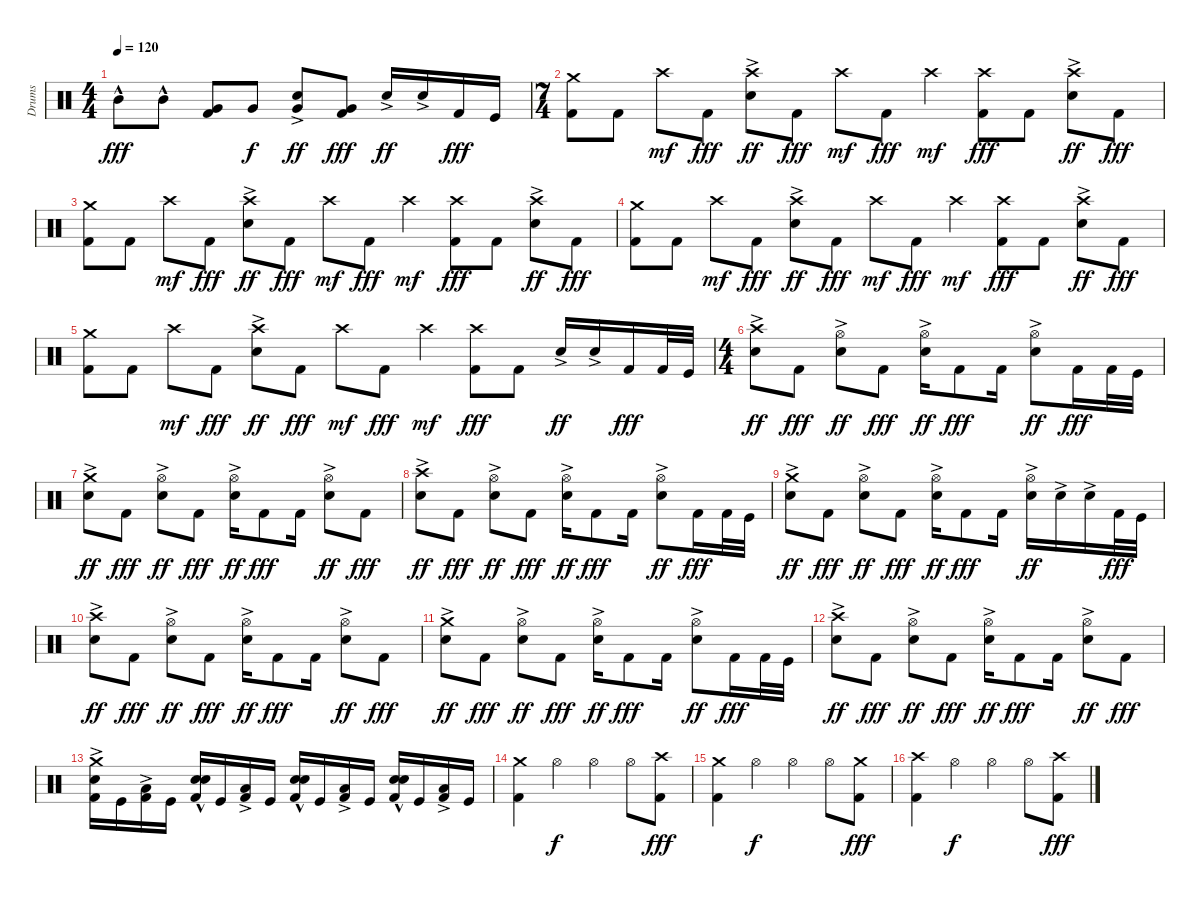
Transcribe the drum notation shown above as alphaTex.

\track ("Drums" "Drums") {instrument percussion}
\staff {score}
\articulation defaults
\ts (4 4)
\tempo 120
\clef neutral
\ks c "Mid Tom (hit)"{hac}.8{dy fff} "Mid Tom (hit)"{hac}.8
("Very Low Tom (hit)" "Kick (hit) 2").8 "Very Low Tom (hit)".8{dy f} ("Snare (hit) 2"{ac} "Very Low Tom (hit)").8{dy ff} ("Very Low Tom (hit)" "Kick (hit) 2").8{dy fff} "Snare (hit) 2"{ac}.16{dy ff} "Snare (hit) 2"{ac}.16 "Kick (hit) 2".16{dy fff} "Kick (hit)".16 |
\ts (7 4)
("Crash medium (hit)" "Kick (hit) 2").8 "Kick (hit) 2".8 "Crash high (hit)".8{dy mf} "Kick (hit) 2".8{dy fff} ("Crash high (hit)" "Snare (hit) 2"{ac}).8{dy ff} "Kick (hit) 2".8{dy fff} "Crash high (hit)".8{dy mf} "Kick (hit) 2".8{dy fff} "Crash high (hit)".4{dy mf} ("Crash high (hit)" "Kick (hit) 2").8{dy fff} "Kick (hit) 2".8 ("Crash high (hit)" "Snare (hit) 2"{ac}).8{dy ff} "Kick (hit) 2".8{dy fff} |
("Crash medium (hit)" "Kick (hit) 2").8 "Kick (hit) 2".8 "Crash high (hit)".8{dy mf} "Kick (hit) 2".8{dy fff} ("Crash high (hit)" "Snare (hit) 2"{ac}).8{dy ff} "Kick (hit) 2".8{dy fff} "Crash high (hit)".8{dy mf} "Kick (hit) 2".8{dy fff} "Crash high (hit)".4{dy mf} ("Crash high (hit)" "Kick (hit) 2").8{dy fff} "Kick (hit) 2".8 ("Crash high (hit)" "Snare (hit) 2"{ac}).8{dy ff} "Kick (hit) 2".8{dy fff} |
("Crash medium (hit)" "Kick (hit) 2").8 "Kick (hit) 2".8 "Crash high (hit)".8{dy mf} "Kick (hit) 2".8{dy fff} ("Crash high (hit)" "Snare (hit) 2"{ac}).8{dy ff} "Kick (hit) 2".8{dy fff} "Crash high (hit)".8{dy mf} "Kick (hit) 2".8{dy fff} "Crash high (hit)".4{dy mf} ("Crash high (hit)" "Kick (hit) 2").8{dy fff} "Kick (hit) 2".8 ("Crash high (hit)" "Snare (hit) 2"{ac}).8{dy ff} "Kick (hit) 2".8{dy fff} |
("Crash medium (hit)" "Kick (hit) 2").8 "Kick (hit) 2".8 "Crash high (hit)".8{dy mf} "Kick (hit) 2".8{dy fff} ("Crash high (hit)" "Snare (hit) 2"{ac}).8{dy ff} "Kick (hit) 2".8{dy fff} "Crash high (hit)".8{dy mf} "Kick (hit) 2".8{dy fff} "Crash high (hit)".4{dy mf} ("Crash high (hit)" "Kick (hit) 2").8{dy fff} "Kick (hit) 2".8 "Snare (hit) 2"{ac}.16{dy ff} "Snare (hit) 2"{ac}.16 "Kick (hit) 2".16{dy fff} "Kick (hit) 2".32 "Kick (hit)".32 |
\ts (4 4)
("Crash high (hit)" "Snare (hit) 2"{ac}).8{dy ff} "Kick (hit) 2".8{dy fff} ("Hi-Hat (open)" "Snare (hit) 2"{ac}).8{dy ff} "Kick (hit) 2".8{dy fff} ("Hi-Hat (open)" "Snare (hit) 2"{ac}).16{dy ff} "Kick (hit) 2".8{dy fff} "Kick (hit) 2".16 ("Hi-Hat (open)" "Snare (hit) 2"{ac}).8{dy ff} "Kick (hit) 2".16{dy fff} "Kick (hit) 2".32 "Kick (hit)".32 |
("Crash medium (hit)" "Snare (hit) 2"{ac}).8{dy ff} "Kick (hit) 2".8{dy fff} ("Hi-Hat (open)" "Snare (hit) 2"{ac}).8{dy ff} "Kick (hit) 2".8{dy fff} ("Hi-Hat (open)" "Snare (hit) 2"{ac}).16{dy ff} "Kick (hit) 2".8{dy fff} "Kick (hit) 2".16 ("Hi-Hat (open)" "Snare (hit) 2"{ac}).8{dy ff} "Kick (hit) 2".8{dy fff} |
("Crash high (hit)" "Snare (hit) 2"{ac}).8{dy ff} "Kick (hit) 2".8{dy fff} ("Hi-Hat (open)" "Snare (hit) 2"{ac}).8{dy ff} "Kick (hit) 2".8{dy fff} ("Hi-Hat (open)" "Snare (hit) 2"{ac}).16{dy ff} "Kick (hit) 2".8{dy fff} "Kick (hit) 2".16 ("Hi-Hat (open)" "Snare (hit) 2"{ac}).8{dy ff} "Kick (hit) 2".16{dy fff} "Kick (hit) 2".32 "Kick (hit)".32 |
("Crash medium (hit)" "Snare (hit) 2"{ac}).8{dy ff} "Kick (hit) 2".8{dy fff} ("Hi-Hat (open)" "Snare (hit) 2"{ac}).8{dy ff} "Kick (hit) 2".8{dy fff} ("Hi-Hat (open)" "Snare (hit) 2"{ac}).16{dy ff} "Kick (hit) 2".8{dy fff} "Kick (hit) 2".16 ("Hi-Hat (open)" "Snare (hit) 2"{ac}).16{dy ff} "Snare (hit) 2"{ac}.16 "Snare (hit) 2"{ac}.16 "Kick (hit) 2".32{dy fff} "Kick (hit)".32 |
("Crash high (hit)" "Snare (hit) 2"{ac}).8{dy ff} "Kick (hit) 2".8{dy fff} ("Hi-Hat (open)" "Snare (hit) 2"{ac}).8{dy ff} "Kick (hit) 2".8{dy fff} ("Hi-Hat (open)" "Snare (hit) 2"{ac}).16{dy ff} "Kick (hit) 2".8{dy fff} "Kick (hit) 2".16 ("Hi-Hat (open)" "Snare (hit) 2"{ac}).8{dy ff} "Kick (hit) 2".8{dy fff} |
("Crash medium (hit)" "Snare (hit) 2"{ac}).8{dy ff} "Kick (hit) 2".8{dy fff} ("Hi-Hat (open)" "Snare (hit) 2"{ac}).8{dy ff} "Kick (hit) 2".8{dy fff} ("Hi-Hat (open)" "Snare (hit) 2"{ac}).16{dy ff} "Kick (hit) 2".8{dy fff} "Kick (hit) 2".16 ("Hi-Hat (open)" "Snare (hit) 2"{ac}).8{dy ff} "Kick (hit) 2".16{dy fff} "Kick (hit) 2".32 "Kick (hit)".32 |
("Crash high (hit)" "Snare (hit) 2"{ac}).8{dy ff} "Kick (hit) 2".8{dy fff} ("Hi-Hat (open)" "Snare (hit) 2"{ac}).8{dy ff} "Kick (hit) 2".8{dy fff} ("Hi-Hat (open)" "Snare (hit) 2"{ac}).16{dy ff} "Kick (hit) 2".8{dy fff} "Kick (hit) 2".16 ("Hi-Hat (open)" "Snare (hit) 2"{ac}).8{dy ff} "Kick (hit) 2".8{dy fff} |
("Crash medium (hit)" "Snare (hit) 2"{ac} "Kick (hit) 2").16 "Kick (hit)".16 ("Low Tom (hit)"{ac} "Kick (hit) 2").16 "Kick (hit)".16 ("Snare (hit) 2"{hac} "Snare (hit) 2"{hac} "Kick (hit) 2").16 "Kick (hit)".16 ("Low Tom (hit)"{ac} "Kick (hit) 2").16 "Kick (hit)".16 ("Snare (hit) 2"{hac} "Snare (hit) 2"{hac} "Kick (hit) 2").16 "Kick (hit)".16 ("Low Tom (hit)"{ac} "Kick (hit) 2").16 "Kick (hit)".16 ("Snare (hit) 2"{hac} "Snare (hit) 2"{hac} "Kick (hit) 2").16 "Kick (hit)".16 ("Low Tom (hit)"{ac} "Kick (hit) 2").16 "Kick (hit)".16 |
("Crash medium (hit)" "Kick (hit) 2").4 "Hi-Hat (open)".4{dy f} "Hi-Hat (open)".4 "Hi-Hat (open)".8 ("Crash high (hit)" "Kick (hit) 2").8{dy fff} |
("Crash medium (hit)" "Kick (hit) 2").4 "Hi-Hat (open)".4{dy f} "Hi-Hat (open)".4 "Hi-Hat (open)".8 ("Crash medium (hit)" "Kick (hit) 2").8{dy fff} |
("Crash high (hit)" "Kick (hit) 2").4 "Hi-Hat (open)".4{dy f} "Hi-Hat (open)".4 "Hi-Hat (open)".8 ("Crash high (hit)" "Kick (hit) 2").8{dy fff}
